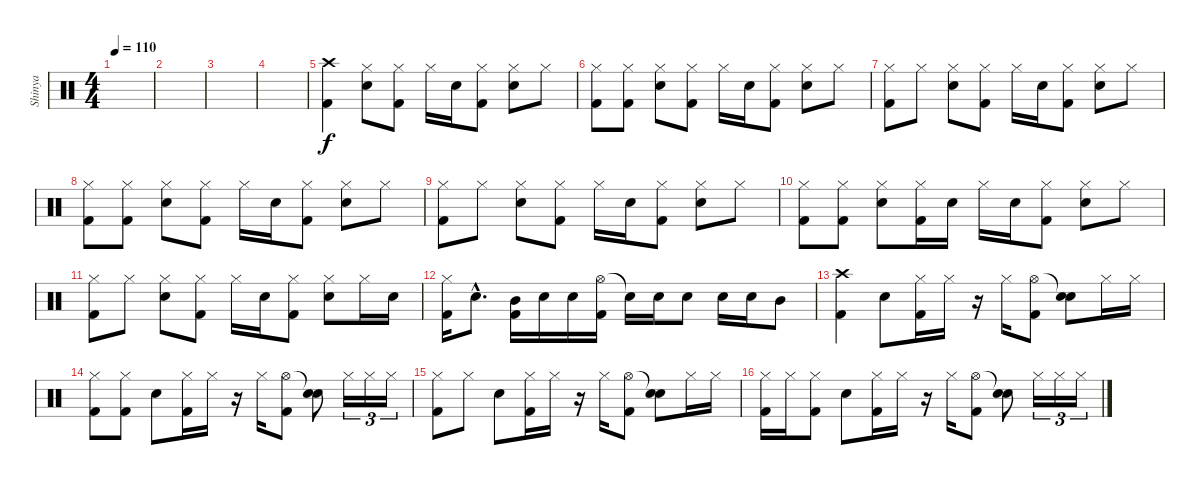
\track ("Shinya" "Shinya") {instrument percussion}
\staff {score}
\articulation defaults
\ts (4 4)
\tempo 110
\clef neutral
\ks c
|
|
|
|
("Crash high (hit)" "Kick (hit) 2").4 ("Hi-Hat (closed)" "Snare (hit) 2").8 ("Hi-Hat (closed)" "Kick (hit) 2").8 "Hi-Hat (closed)".16 "Snare (hit) 2".16 ("Kick (hit) 2" "Hi-Hat (closed)").8 ("Hi-Hat (closed)" "Snare (hit) 2").8 "Hi-Hat (closed)".8 |
("Hi-Hat (closed)" "Kick (hit) 2").8 ("Hi-Hat (closed)" "Kick (hit) 2").8 ("Hi-Hat (closed)" "Snare (hit) 2").8 ("Hi-Hat (closed)" "Kick (hit) 2").8 "Hi-Hat (closed)".16 "Snare (hit) 2".16 ("Hi-Hat (closed)" "Kick (hit) 2").8 ("Hi-Hat (closed)" "Snare (hit) 2").8 "Hi-Hat (closed)".8 |
("Hi-Hat (closed)" "Kick (hit) 2").8 "Hi-Hat (closed)".8 ("Hi-Hat (closed)" "Snare (hit) 2").8 ("Hi-Hat (closed)" "Kick (hit) 2").8 "Hi-Hat (closed)".16 "Snare (hit) 2".16 ("Hi-Hat (closed)" "Kick (hit) 2").8 ("Hi-Hat (closed)" "Snare (hit) 2").8 "Hi-Hat (closed)".8 |
("Hi-Hat (closed)" "Kick (hit) 2").8 ("Hi-Hat (closed)" "Kick (hit) 2").8 ("Hi-Hat (closed)" "Snare (hit) 2").8 ("Hi-Hat (closed)" "Kick (hit) 2").8 "Hi-Hat (closed)".16 "Snare (hit) 2".16 ("Hi-Hat (closed)" "Kick (hit) 2").8 ("Hi-Hat (closed)" "Snare (hit) 2").8 "Hi-Hat (closed)".8 |
("Hi-Hat (closed)" "Kick (hit) 2").8 "Hi-Hat (closed)".8 ("Hi-Hat (closed)" "Snare (hit) 2").8 ("Hi-Hat (closed)" "Kick (hit) 2").8 "Hi-Hat (closed)".16 "Snare (hit) 2".16 ("Hi-Hat (closed)" "Kick (hit) 2").8 ("Hi-Hat (closed)" "Snare (hit) 2").8 "Hi-Hat (closed)".8 |
("Hi-Hat (closed)" "Kick (hit) 2").8 ("Hi-Hat (closed)" "Kick (hit) 2").8 ("Hi-Hat (closed)" "Snare (hit) 2").8 ("Hi-Hat (closed)" "Kick (hit) 2").16 "Snare (hit) 2".16 "Hi-Hat (closed)".16 "Snare (hit) 2".16 ("Hi-Hat (closed)" "Kick (hit) 2").8 ("Hi-Hat (closed)" "Snare (hit) 2").8 "Hi-Hat (closed)".8 |
("Hi-Hat (closed)" "Kick (hit) 2").8 "Hi-Hat (closed)".8 ("Hi-Hat (closed)" "Snare (hit) 2").8 ("Hi-Hat (closed)" "Kick (hit) 2").8 "Hi-Hat (closed)".16 "Snare (hit) 2".16 ("Hi-Hat (closed)" "Kick (hit) 2").8 ("Hi-Hat (closed)" "Snare (hit) 2").8 "Hi-Hat (closed)".16 "Snare (hit) 2".16 |
("Hi-Hat (closed)" "Kick (hit) 2").16 "Snare (hit) 2"{hac}.8{d} ("Mid Tom (hit)" "Kick (hit) 2").16 "Snare (hit) 2".16 "Snare (hit) 2".16 ("Hi-Hat (open)" "Kick (hit) 2").16 "Snare (hit)"{t}.16 "Snare (hit) 2".16 "Snare (hit) 2".8 "Snare (hit) 2".16 "Snare (hit) 2".16 "Mid Tom (hit)".8 |
("Crash high (hit)" "Kick (hit) 2").4 "Snare (hit) 2".8 ("Hi-Hat (closed)" "Kick (hit) 2").16 "Hi-Hat (closed)".16 r.16 "Hi-Hat (closed)".16 ("Hi-Hat (open)" "Kick (hit) 2").8 ("Snare (hit)"{t} "Snare (hit) 2").8 "Hi-Hat (closed)".16 "Hi-Hat (closed)".16 |
("Hi-Hat (closed)" "Kick (hit) 2").8 ("Hi-Hat (closed)" "Kick (hit) 2").8 "Snare (hit) 2".8 ("Hi-Hat (closed)" "Kick (hit) 2").16 "Hi-Hat (closed)".16 r.16 "Hi-Hat (closed)".16 ("Hi-Hat (open)" "Kick (hit) 2").8 ("Snare (hit)"{t} "Snare (hit) 2").8 "Hi-Hat (closed)".16{tu (3 2)} "Hi-Hat (closed)".16{tu (3 2)} "Hi-Hat (closed)".16{tu (3 2)} |
("Hi-Hat (closed)" "Kick (hit) 2").8 "Hi-Hat (closed)".8 "Snare (hit) 2".8 ("Hi-Hat (closed)" "Kick (hit) 2").16 "Hi-Hat (closed)".16 r.16 "Hi-Hat (closed)".16 ("Hi-Hat (open)" "Kick (hit) 2").8 ("Snare (hit)"{t} "Snare (hit) 2").8 "Hi-Hat (closed)".16 "Hi-Hat (closed)".16 |
("Hi-Hat (closed)" "Kick (hit) 2").16 "Hi-Hat (closed)".16 ("Hi-Hat (closed)" "Kick (hit) 2").8 "Snare (hit) 2".8 ("Hi-Hat (closed)" "Kick (hit) 2").16 "Hi-Hat (closed)".16 r.16 "Hi-Hat (closed)".16 ("Hi-Hat (open)" "Kick (hit) 2").8 ("Snare (hit)"{t} "Snare (hit) 2").8 "Hi-Hat (closed)".16{tu (3 2)} "Hi-Hat (closed)".16{tu (3 2)} "Hi-Hat (closed)".16{tu (3 2)}
